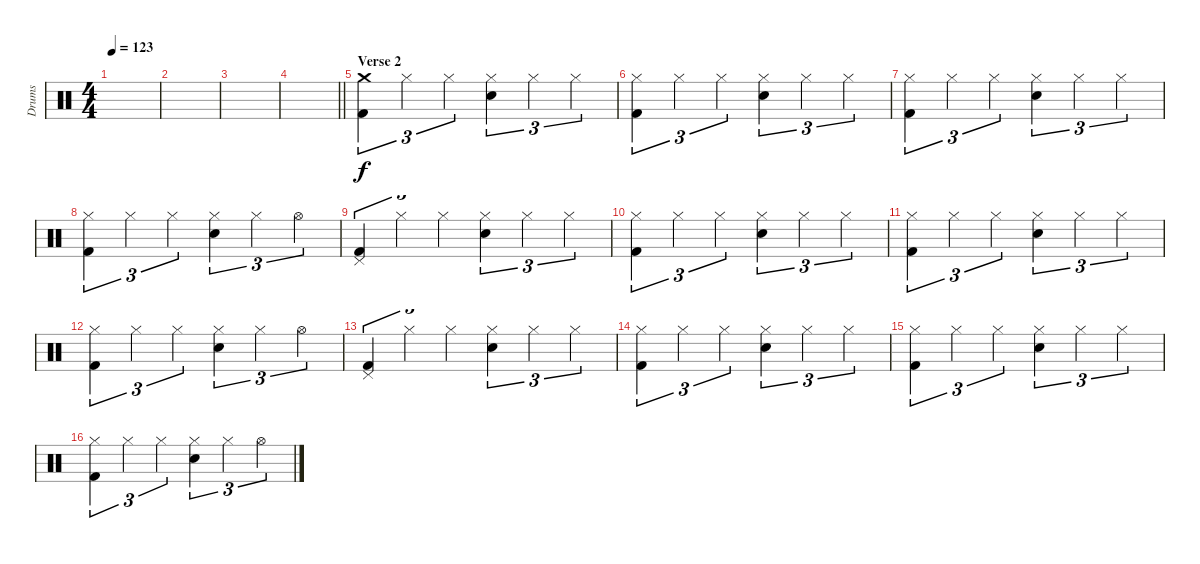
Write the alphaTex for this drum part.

\track ("Drums" "Drums") {instrument percussion}
\staff {score}
\articulation defaults
\ts (4 4)
\tempo 123
\clef neutral
\ks c
|
|
|
\barLineRight lightlight
|
\section ("" "Verse 2")
("Crash medium (hit)" "Kick (hit) 2").4{tu (3 2)} "Hi-Hat (closed)".4{tu (3 2)} "Hi-Hat (closed)".4{tu (3 2)} ("Hi-Hat (closed)" "Electric Snare (hit)").4{tu (3 2)} "Hi-Hat (closed)".4{tu (3 2)} "Hi-Hat (closed)".4{tu (3 2)} |
("Hi-Hat (closed)" "Kick (hit) 2").4{tu (3 2)} "Hi-Hat (closed)".4{tu (3 2)} "Hi-Hat (closed)".4{tu (3 2)} ("Hi-Hat (closed)" "Electric Snare (hit)").4{tu (3 2)} "Hi-Hat (closed)".4{tu (3 2)} "Hi-Hat (closed)".4{tu (3 2)} |
("Hi-Hat (closed)" "Kick (hit) 2").4{tu (3 2)} "Hi-Hat (closed)".4{tu (3 2)} "Hi-Hat (closed)".4{tu (3 2)} ("Hi-Hat (closed)" "Electric Snare (hit)").4{tu (3 2)} "Hi-Hat (closed)".4{tu (3 2)} "Hi-Hat (closed)".4{tu (3 2)} |
("Hi-Hat (closed)" "Kick (hit) 2").4{tu (3 2)} "Hi-Hat (closed)".4{tu (3 2)} "Hi-Hat (closed)".4{tu (3 2)} ("Hi-Hat (closed)" "Electric Snare (hit)").4{tu (3 2)} "Hi-Hat (closed)".4{tu (3 2)} "Hi-Hat (open)".4{tu (3 2)} |
("Pedal Hi-Hat (hit)" "Kick (hit) 2").4{tu (3 2)} "Hi-Hat (closed)".4{tu (3 2)} "Hi-Hat (closed)".4{tu (3 2)} ("Hi-Hat (closed)" "Electric Snare (hit)").4{tu (3 2)} "Hi-Hat (closed)".4{tu (3 2)} "Hi-Hat (closed)".4{tu (3 2)} |
("Hi-Hat (closed)" "Kick (hit) 2").4{tu (3 2)} "Hi-Hat (closed)".4{tu (3 2)} "Hi-Hat (closed)".4{tu (3 2)} ("Hi-Hat (closed)" "Electric Snare (hit)").4{tu (3 2)} "Hi-Hat (closed)".4{tu (3 2)} "Hi-Hat (closed)".4{tu (3 2)} |
("Hi-Hat (closed)" "Kick (hit) 2").4{tu (3 2)} "Hi-Hat (closed)".4{tu (3 2)} "Hi-Hat (closed)".4{tu (3 2)} ("Hi-Hat (closed)" "Electric Snare (hit)").4{tu (3 2)} "Hi-Hat (closed)".4{tu (3 2)} "Hi-Hat (closed)".4{tu (3 2)} |
("Hi-Hat (closed)" "Kick (hit) 2").4{tu (3 2)} "Hi-Hat (closed)".4{tu (3 2)} "Hi-Hat (closed)".4{tu (3 2)} ("Hi-Hat (closed)" "Electric Snare (hit)").4{tu (3 2)} "Hi-Hat (closed)".4{tu (3 2)} "Hi-Hat (open)".4{tu (3 2)} |
("Pedal Hi-Hat (hit)" "Kick (hit) 2").4{tu (3 2)} "Hi-Hat (closed)".4{tu (3 2)} "Hi-Hat (closed)".4{tu (3 2)} ("Hi-Hat (closed)" "Electric Snare (hit)").4{tu (3 2)} "Hi-Hat (closed)".4{tu (3 2)} "Hi-Hat (closed)".4{tu (3 2)} |
("Hi-Hat (closed)" "Kick (hit) 2").4{tu (3 2)} "Hi-Hat (closed)".4{tu (3 2)} "Hi-Hat (closed)".4{tu (3 2)} ("Hi-Hat (closed)" "Electric Snare (hit)").4{tu (3 2)} "Hi-Hat (closed)".4{tu (3 2)} "Hi-Hat (closed)".4{tu (3 2)} |
("Hi-Hat (closed)" "Kick (hit) 2").4{tu (3 2)} "Hi-Hat (closed)".4{tu (3 2)} "Hi-Hat (closed)".4{tu (3 2)} ("Hi-Hat (closed)" "Electric Snare (hit)").4{tu (3 2)} "Hi-Hat (closed)".4{tu (3 2)} "Hi-Hat (closed)".4{tu (3 2)} |
("Hi-Hat (closed)" "Kick (hit) 2").4{tu (3 2)} "Hi-Hat (closed)".4{tu (3 2)} "Hi-Hat (closed)".4{tu (3 2)} ("Hi-Hat (closed)" "Electric Snare (hit)").4{tu (3 2)} "Hi-Hat (closed)".4{tu (3 2)} "Hi-Hat (open)".4{tu (3 2)}
